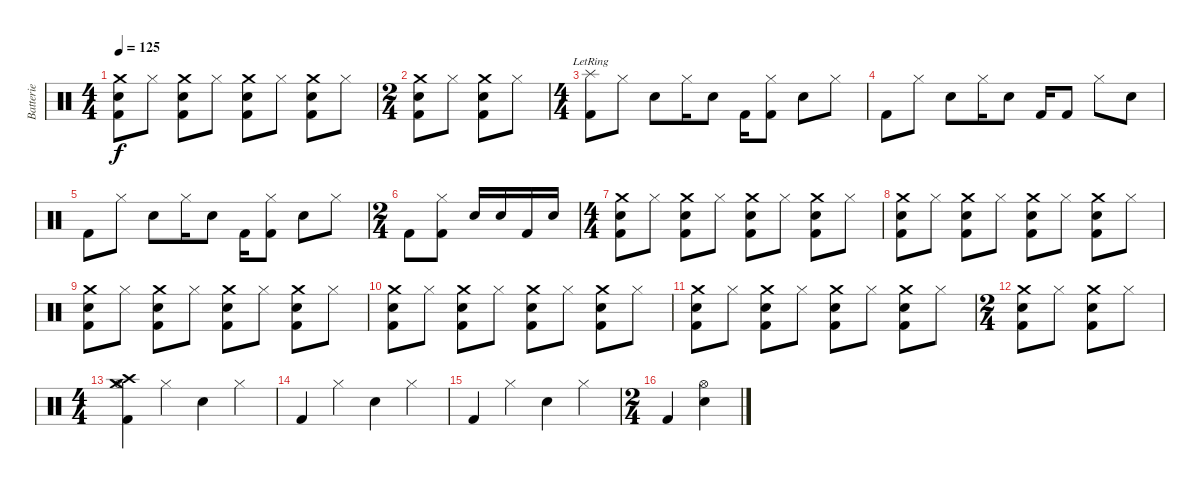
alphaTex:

\track ("Batterie" "Batterie") {instrument percussion}
\staff {score}
\articulation defaults
\ts (4 4)
\tempo 125
\clef neutral
\ks c
("Electric Snare (hit)" "Crash medium (hit)" "Kick (hit) 2").8{dy f} "Hi-Hat (closed)".8 ("Electric Snare (hit)" "Crash medium (hit)" "Kick (hit) 2").8 "Hi-Hat (closed)".8 ("Electric Snare (hit)" "Crash medium (hit)" "Kick (hit) 2").8 "Hi-Hat (closed)".8 ("Electric Snare (hit)" "Crash medium (hit)" "Kick (hit) 2").8 "Hi-Hat (closed)".8 |
\ts (2 4)
("Electric Snare (hit)" "Crash medium (hit)" "Kick (hit) 2").8 "Hi-Hat (closed)".8 ("Electric Snare (hit)" "Crash medium (hit)" "Kick (hit) 2").8 "Hi-Hat (closed)".8 |
\ts (4 4)
("Splash (hit)"{lr} "Kick (hit) 2").8 "Hi-Hat (closed)".8 "Electric Snare (hit)".8 "Hi-Hat (closed)".16 "Electric Snare (hit)".8 "Kick (hit) 2".16 ("Hi-Hat (closed)" "Kick (hit) 2").8 "Electric Snare (hit)".8 "Hi-Hat (closed)".8 |
"Kick (hit) 2".8 "Hi-Hat (closed)".8 "Electric Snare (hit)".8 "Hi-Hat (closed)".16 "Electric Snare (hit)".8 "Kick (hit) 2".16 "Kick (hit) 2".8 "Hi-Hat (closed)".8 "Electric Snare (hit)".8 |
"Kick (hit) 2".8 "Hi-Hat (closed)".8 "Electric Snare (hit)".8 "Hi-Hat (closed)".16 "Electric Snare (hit)".8 "Kick (hit) 2".16 ("Hi-Hat (closed)" "Kick (hit) 2").8 "Electric Snare (hit)".8 "Hi-Hat (closed)".8 |
\ts (2 4)
"Kick (hit) 2".8 ("Hi-Hat (closed)" "Kick (hit) 2").8 "Electric Snare (hit)".16 "Electric Snare (hit)".16 "Kick (hit) 2".16 "Electric Snare (hit)".16 |
\ts (4 4)
("Electric Snare (hit)" "Crash medium (hit)" "Kick (hit) 2").8 "Hi-Hat (closed)".8 ("Electric Snare (hit)" "Crash medium (hit)" "Kick (hit) 2").8 "Hi-Hat (closed)".8 ("Electric Snare (hit)" "Crash medium (hit)" "Kick (hit) 2").8 "Hi-Hat (closed)".8 ("Electric Snare (hit)" "Crash medium (hit)" "Kick (hit) 2").8 "Hi-Hat (closed)".8 |
("Electric Snare (hit)" "Crash medium (hit)" "Kick (hit) 2").8 "Hi-Hat (closed)".8 ("Electric Snare (hit)" "Crash medium (hit)" "Kick (hit) 2").8 "Hi-Hat (closed)".8 ("Electric Snare (hit)" "Crash medium (hit)" "Kick (hit) 2").8 "Hi-Hat (closed)".8 ("Electric Snare (hit)" "Crash medium (hit)" "Kick (hit) 2").8 "Hi-Hat (closed)".8 |
("Electric Snare (hit)" "Crash medium (hit)" "Kick (hit) 2").8 "Hi-Hat (closed)".8 ("Electric Snare (hit)" "Crash medium (hit)" "Kick (hit) 2").8 "Hi-Hat (closed)".8 ("Electric Snare (hit)" "Crash medium (hit)" "Kick (hit) 2").8 "Hi-Hat (closed)".8 ("Electric Snare (hit)" "Crash medium (hit)" "Kick (hit) 2").8 "Hi-Hat (closed)".8 |
("Electric Snare (hit)" "Crash medium (hit)" "Kick (hit) 2").8 "Hi-Hat (closed)".8 ("Electric Snare (hit)" "Crash medium (hit)" "Kick (hit) 2").8 "Hi-Hat (closed)".8 ("Electric Snare (hit)" "Crash medium (hit)" "Kick (hit) 2").8 "Hi-Hat (closed)".8 ("Electric Snare (hit)" "Crash medium (hit)" "Kick (hit) 2").8 "Hi-Hat (closed)".8 |
("Electric Snare (hit)" "Crash medium (hit)" "Kick (hit) 2").8 "Hi-Hat (closed)".8 ("Electric Snare (hit)" "Crash medium (hit)" "Kick (hit) 2").8 "Hi-Hat (closed)".8 ("Electric Snare (hit)" "Crash medium (hit)" "Kick (hit) 2").8 "Hi-Hat (closed)".8 ("Electric Snare (hit)" "Crash medium (hit)" "Kick (hit) 2").8 "Hi-Hat (closed)".8 |
\ts (2 4)
("Electric Snare (hit)" "Crash medium (hit)" "Kick (hit) 2").8 "Hi-Hat (closed)".8 ("Electric Snare (hit)" "Crash medium (hit)" "Kick (hit) 2").8 "Hi-Hat (closed)".8 |
\ts (4 4)
("Crash high (hit)" "Crash medium (hit)" "Kick (hit) 2" "Hi-Hat (open)").4 "Hi-Hat (closed)".4 "Electric Snare (hit)".4 "Hi-Hat (closed)".4 |
"Kick (hit) 2".4 "Hi-Hat (closed)".4 "Electric Snare (hit)".4 "Hi-Hat (closed)".4 |
"Kick (hit) 2".4 "Hi-Hat (closed)".4 "Electric Snare (hit)".4 "Hi-Hat (closed)".4 |
\ts (2 4)
"Kick (hit) 2".4 ("Hi-Hat (open)" "Electric Snare (hit)").4
